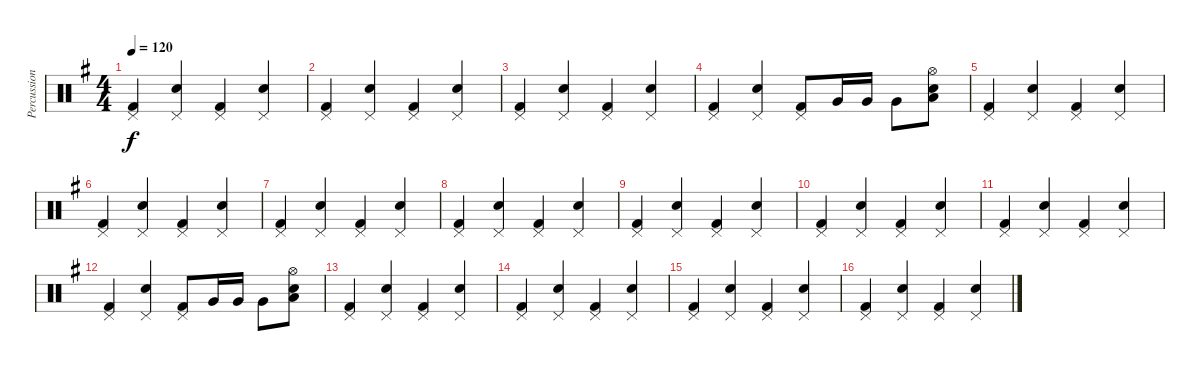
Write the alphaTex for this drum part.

\track ("Percussion" "Percussion") {instrument percussion}
\staff {score}
\articulation defaults
\ts (4 4)
\tempo 120
\clef neutral
\ks eminor
("Kick (hit) 2" "Pedal Hi-Hat (hit)").4{dy f} ("Snare (hit) 2" "Pedal Hi-Hat (hit)").4 ("Kick (hit) 2" "Pedal Hi-Hat (hit)").4 ("Snare (hit) 2" "Pedal Hi-Hat (hit)").4 |
("Kick (hit) 2" "Pedal Hi-Hat (hit)").4 ("Snare (hit) 2" "Pedal Hi-Hat (hit)").4 ("Kick (hit) 2" "Pedal Hi-Hat (hit)").4 ("Snare (hit) 2" "Pedal Hi-Hat (hit)").4 |
("Kick (hit) 2" "Pedal Hi-Hat (hit)").4 ("Snare (hit) 2" "Pedal Hi-Hat (hit)").4 ("Kick (hit) 2" "Pedal Hi-Hat (hit)").4 ("Snare (hit) 2" "Pedal Hi-Hat (hit)").4 |
("Kick (hit) 2" "Pedal Hi-Hat (hit)").4 ("Snare (hit) 2" "Pedal Hi-Hat (hit)").4 ("Kick (hit) 2" "Pedal Hi-Hat (hit)").8 "Very Low Tom (hit)".16 "Very Low Tom (hit)".16 "Very Low Tom (hit)".8 ("Snare (hit) 2" "Low Floor Tom (hit)" "Hi-Hat (open)").8 |
("Kick (hit) 2" "Pedal Hi-Hat (hit)").4 ("Snare (hit) 2" "Pedal Hi-Hat (hit)").4 ("Kick (hit) 2" "Pedal Hi-Hat (hit)").4 ("Snare (hit) 2" "Pedal Hi-Hat (hit)").4 |
("Kick (hit) 2" "Pedal Hi-Hat (hit)").4 ("Snare (hit) 2" "Pedal Hi-Hat (hit)").4 ("Kick (hit) 2" "Pedal Hi-Hat (hit)").4 ("Snare (hit) 2" "Pedal Hi-Hat (hit)").4 |
("Kick (hit) 2" "Pedal Hi-Hat (hit)").4 ("Snare (hit) 2" "Pedal Hi-Hat (hit)").4 ("Kick (hit) 2" "Pedal Hi-Hat (hit)").4 ("Snare (hit) 2" "Pedal Hi-Hat (hit)").4 |
("Kick (hit) 2" "Pedal Hi-Hat (hit)").4 ("Snare (hit) 2" "Pedal Hi-Hat (hit)").4 ("Kick (hit) 2" "Pedal Hi-Hat (hit)").4 ("Snare (hit) 2" "Pedal Hi-Hat (hit)").4 |
("Kick (hit) 2" "Pedal Hi-Hat (hit)").4 ("Snare (hit) 2" "Pedal Hi-Hat (hit)").4 ("Kick (hit) 2" "Pedal Hi-Hat (hit)").4 ("Snare (hit) 2" "Pedal Hi-Hat (hit)").4 |
("Kick (hit) 2" "Pedal Hi-Hat (hit)").4 ("Snare (hit) 2" "Pedal Hi-Hat (hit)").4 ("Kick (hit) 2" "Pedal Hi-Hat (hit)").4 ("Snare (hit) 2" "Pedal Hi-Hat (hit)").4 |
("Kick (hit) 2" "Pedal Hi-Hat (hit)").4 ("Snare (hit) 2" "Pedal Hi-Hat (hit)").4 ("Kick (hit) 2" "Pedal Hi-Hat (hit)").4 ("Snare (hit) 2" "Pedal Hi-Hat (hit)").4 |
("Kick (hit) 2" "Pedal Hi-Hat (hit)").4 ("Snare (hit) 2" "Pedal Hi-Hat (hit)").4 ("Kick (hit) 2" "Pedal Hi-Hat (hit)").8 "Very Low Tom (hit)".16 "Very Low Tom (hit)".16 "Very Low Tom (hit)".8 ("Snare (hit) 2" "Low Floor Tom (hit)" "Hi-Hat (open)").8 |
("Kick (hit) 2" "Pedal Hi-Hat (hit)").4 ("Snare (hit) 2" "Pedal Hi-Hat (hit)").4 ("Kick (hit) 2" "Pedal Hi-Hat (hit)").4 ("Snare (hit) 2" "Pedal Hi-Hat (hit)").4 |
("Kick (hit) 2" "Pedal Hi-Hat (hit)").4 ("Snare (hit) 2" "Pedal Hi-Hat (hit)").4 ("Kick (hit) 2" "Pedal Hi-Hat (hit)").4 ("Snare (hit) 2" "Pedal Hi-Hat (hit)").4 |
("Kick (hit) 2" "Pedal Hi-Hat (hit)").4 ("Snare (hit) 2" "Pedal Hi-Hat (hit)").4 ("Kick (hit) 2" "Pedal Hi-Hat (hit)").4 ("Snare (hit) 2" "Pedal Hi-Hat (hit)").4 |
("Kick (hit) 2" "Pedal Hi-Hat (hit)").4 ("Snare (hit) 2" "Pedal Hi-Hat (hit)").4 ("Kick (hit) 2" "Pedal Hi-Hat (hit)").4 ("Snare (hit) 2" "Pedal Hi-Hat (hit)").4
